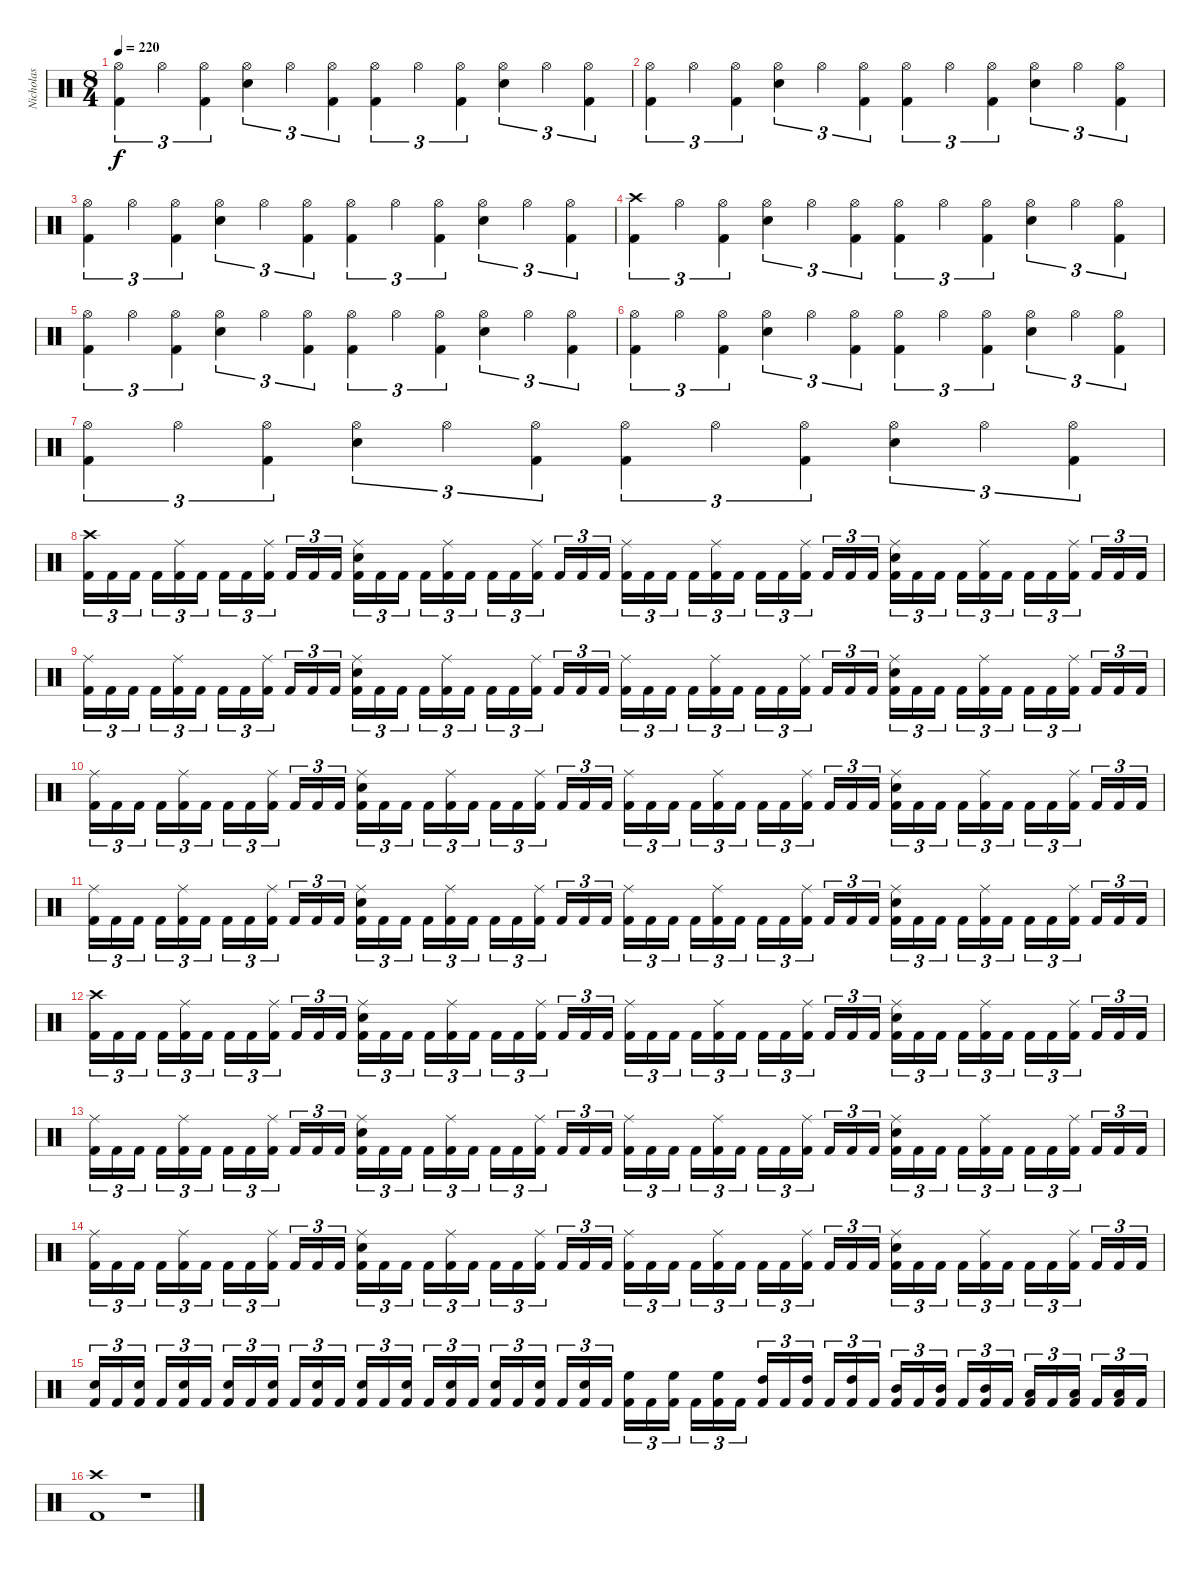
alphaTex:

\track ("Nicholas" "Nicholas") {instrument percussion}
\staff {score}
\articulation defaults
\ts (8 4)
\tempo 220
\clef neutral
\ks c
("Kick (hit) 2" "Hi-Hat (open)").4{tu (3 2) dy f} "Hi-Hat (open)".4{tu (3 2)} ("Kick (hit) 2" "Hi-Hat (open)").4{tu (3 2)} ("Snare (hit) 2" "Hi-Hat (open)").4{tu (3 2)} "Hi-Hat (open)".4{tu (3 2)} ("Kick (hit) 2" "Hi-Hat (open)").4{tu (3 2)} ("Kick (hit) 2" "Hi-Hat (open)").4{tu (3 2)} "Hi-Hat (open)".4{tu (3 2)} ("Kick (hit) 2" "Hi-Hat (open)").4{tu (3 2)} ("Snare (hit) 2" "Hi-Hat (open)").4{tu (3 2)} "Hi-Hat (open)".4{tu (3 2)} ("Kick (hit) 2" "Hi-Hat (open)").4{tu (3 2)} |
("Kick (hit) 2" "Hi-Hat (open)").4{tu (3 2)} "Hi-Hat (open)".4{tu (3 2)} ("Kick (hit) 2" "Hi-Hat (open)").4{tu (3 2)} ("Snare (hit) 2" "Hi-Hat (open)").4{tu (3 2)} "Hi-Hat (open)".4{tu (3 2)} ("Kick (hit) 2" "Hi-Hat (open)").4{tu (3 2)} ("Kick (hit) 2" "Hi-Hat (open)").4{tu (3 2)} "Hi-Hat (open)".4{tu (3 2)} ("Kick (hit) 2" "Hi-Hat (open)").4{tu (3 2)} ("Snare (hit) 2" "Hi-Hat (open)").4{tu (3 2)} "Hi-Hat (open)".4{tu (3 2)} ("Kick (hit) 2" "Hi-Hat (open)").4{tu (3 2)} |
("Kick (hit) 2" "Hi-Hat (open)").4{tu (3 2)} "Hi-Hat (open)".4{tu (3 2)} ("Kick (hit) 2" "Hi-Hat (open)").4{tu (3 2)} ("Snare (hit) 2" "Hi-Hat (open)").4{tu (3 2)} "Hi-Hat (open)".4{tu (3 2)} ("Kick (hit) 2" "Hi-Hat (open)").4{tu (3 2)} ("Kick (hit) 2" "Hi-Hat (open)").4{tu (3 2)} "Hi-Hat (open)".4{tu (3 2)} ("Kick (hit) 2" "Hi-Hat (open)").4{tu (3 2)} ("Snare (hit) 2" "Hi-Hat (open)").4{tu (3 2)} "Hi-Hat (open)".4{tu (3 2)} ("Kick (hit) 2" "Hi-Hat (open)").4{tu (3 2)} |
("Kick (hit) 2" "Crash high (hit)").4{tu (3 2)} "Hi-Hat (open)".4{tu (3 2)} ("Kick (hit) 2" "Hi-Hat (open)").4{tu (3 2)} ("Snare (hit) 2" "Hi-Hat (open)").4{tu (3 2)} "Hi-Hat (open)".4{tu (3 2)} ("Kick (hit) 2" "Hi-Hat (open)").4{tu (3 2)} ("Kick (hit) 2" "Hi-Hat (open)").4{tu (3 2)} "Hi-Hat (open)".4{tu (3 2)} ("Kick (hit) 2" "Hi-Hat (open)").4{tu (3 2)} ("Snare (hit) 2" "Hi-Hat (open)").4{tu (3 2)} "Hi-Hat (open)".4{tu (3 2)} ("Kick (hit) 2" "Hi-Hat (open)").4{tu (3 2)} |
("Kick (hit) 2" "Hi-Hat (open)").4{tu (3 2)} "Hi-Hat (open)".4{tu (3 2)} ("Kick (hit) 2" "Hi-Hat (open)").4{tu (3 2)} ("Snare (hit) 2" "Hi-Hat (open)").4{tu (3 2)} "Hi-Hat (open)".4{tu (3 2)} ("Kick (hit) 2" "Hi-Hat (open)").4{tu (3 2)} ("Kick (hit) 2" "Hi-Hat (open)").4{tu (3 2)} "Hi-Hat (open)".4{tu (3 2)} ("Kick (hit) 2" "Hi-Hat (open)").4{tu (3 2)} ("Snare (hit) 2" "Hi-Hat (open)").4{tu (3 2)} "Hi-Hat (open)".4{tu (3 2)} ("Kick (hit) 2" "Hi-Hat (open)").4{tu (3 2)} |
("Kick (hit) 2" "Hi-Hat (open)").4{tu (3 2)} "Hi-Hat (open)".4{tu (3 2)} ("Kick (hit) 2" "Hi-Hat (open)").4{tu (3 2)} ("Snare (hit) 2" "Hi-Hat (open)").4{tu (3 2)} "Hi-Hat (open)".4{tu (3 2)} ("Kick (hit) 2" "Hi-Hat (open)").4{tu (3 2)} ("Kick (hit) 2" "Hi-Hat (open)").4{tu (3 2)} "Hi-Hat (open)".4{tu (3 2)} ("Kick (hit) 2" "Hi-Hat (open)").4{tu (3 2)} ("Snare (hit) 2" "Hi-Hat (open)").4{tu (3 2)} "Hi-Hat (open)".4{tu (3 2)} ("Kick (hit) 2" "Hi-Hat (open)").4{tu (3 2)} |
("Kick (hit) 2" "Hi-Hat (open)").4{tu (3 2)} "Hi-Hat (open)".4{tu (3 2)} ("Kick (hit) 2" "Hi-Hat (open)").4{tu (3 2)} ("Snare (hit) 2" "Hi-Hat (open)").4{tu (3 2)} "Hi-Hat (open)".4{tu (3 2)} ("Kick (hit) 2" "Hi-Hat (open)").4{tu (3 2)} ("Kick (hit) 2" "Hi-Hat (open)").4{tu (3 2)} "Hi-Hat (open)".4{tu (3 2)} ("Kick (hit) 2" "Hi-Hat (open)").4{tu (3 2)} ("Snare (hit) 2" "Hi-Hat (open)").4{tu (3 2)} "Hi-Hat (open)".4{tu (3 2)} ("Kick (hit) 2" "Hi-Hat (open)").4{tu (3 2)} |
("Kick (hit) 2" "Crash high (hit)").16{tu (3 2)} "Kick (hit) 2".16{tu (3 2)} "Kick (hit) 2".16{tu (3 2)} "Kick (hit) 2".16{tu (3 2)} ("Kick (hit) 2" "Ride (middle)").16{tu (3 2)} "Kick (hit) 2".16{tu (3 2)} "Kick (hit) 2".16{tu (3 2)} "Kick (hit) 2".16{tu (3 2)} ("Kick (hit) 2" "Ride (middle)").16{tu (3 2)} "Kick (hit) 2".16{tu (3 2)} "Kick (hit) 2".16{tu (3 2)} "Kick (hit) 2".16{tu (3 2)} ("Kick (hit) 2" "Snare (hit) 2" "Ride (middle)").16{tu (3 2)} "Kick (hit) 2".16{tu (3 2)} "Kick (hit) 2".16{tu (3 2)} "Kick (hit) 2".16{tu (3 2)} ("Kick (hit) 2" "Ride (middle)").16{tu (3 2)} "Kick (hit) 2".16{tu (3 2)} "Kick (hit) 2".16{tu (3 2)} "Kick (hit) 2".16{tu (3 2)} ("Kick (hit) 2" "Ride (middle)").16{tu (3 2)} "Kick (hit) 2".16{tu (3 2)} "Kick (hit) 2".16{tu (3 2)} "Kick (hit) 2".16{tu (3 2)} ("Kick (hit) 2" "Ride (middle)").16{tu (3 2)} "Kick (hit) 2".16{tu (3 2)} "Kick (hit) 2".16{tu (3 2)} "Kick (hit) 2".16{tu (3 2)} ("Kick (hit) 2" "Ride (middle)").16{tu (3 2)} "Kick (hit) 2".16{tu (3 2)} "Kick (hit) 2".16{tu (3 2)} "Kick (hit) 2".16{tu (3 2)} ("Kick (hit) 2" "Ride (middle)").16{tu (3 2)} "Kick (hit) 2".16{tu (3 2)} "Kick (hit) 2".16{tu (3 2)} "Kick (hit) 2".16{tu (3 2)} ("Kick (hit) 2" "Snare (hit) 2" "Ride (middle)").16{tu (3 2)} "Kick (hit) 2".16{tu (3 2)} "Kick (hit) 2".16{tu (3 2)} "Kick (hit) 2".16{tu (3 2)} ("Kick (hit) 2" "Ride (middle)").16{tu (3 2)} "Kick (hit) 2".16{tu (3 2)} "Kick (hit) 2".16{tu (3 2)} "Kick (hit) 2".16{tu (3 2)} ("Kick (hit) 2" "Ride (middle)").16{tu (3 2)} "Kick (hit) 2".16{tu (3 2)} "Kick (hit) 2".16{tu (3 2)} "Kick (hit) 2".16{tu (3 2)} |
("Kick (hit) 2" "Ride (middle)").16{tu (3 2)} "Kick (hit) 2".16{tu (3 2)} "Kick (hit) 2".16{tu (3 2)} "Kick (hit) 2".16{tu (3 2)} ("Kick (hit) 2" "Ride (middle)").16{tu (3 2)} "Kick (hit) 2".16{tu (3 2)} "Kick (hit) 2".16{tu (3 2)} "Kick (hit) 2".16{tu (3 2)} ("Kick (hit) 2" "Ride (middle)").16{tu (3 2)} "Kick (hit) 2".16{tu (3 2)} "Kick (hit) 2".16{tu (3 2)} "Kick (hit) 2".16{tu (3 2)} ("Kick (hit) 2" "Snare (hit) 2" "Ride (middle)").16{tu (3 2)} "Kick (hit) 2".16{tu (3 2)} "Kick (hit) 2".16{tu (3 2)} "Kick (hit) 2".16{tu (3 2)} ("Kick (hit) 2" "Ride (middle)").16{tu (3 2)} "Kick (hit) 2".16{tu (3 2)} "Kick (hit) 2".16{tu (3 2)} "Kick (hit) 2".16{tu (3 2)} ("Kick (hit) 2" "Ride (middle)").16{tu (3 2)} "Kick (hit) 2".16{tu (3 2)} "Kick (hit) 2".16{tu (3 2)} "Kick (hit) 2".16{tu (3 2)} ("Kick (hit) 2" "Ride (middle)").16{tu (3 2)} "Kick (hit) 2".16{tu (3 2)} "Kick (hit) 2".16{tu (3 2)} "Kick (hit) 2".16{tu (3 2)} ("Kick (hit) 2" "Ride (middle)").16{tu (3 2)} "Kick (hit) 2".16{tu (3 2)} "Kick (hit) 2".16{tu (3 2)} "Kick (hit) 2".16{tu (3 2)} ("Kick (hit) 2" "Ride (middle)").16{tu (3 2)} "Kick (hit) 2".16{tu (3 2)} "Kick (hit) 2".16{tu (3 2)} "Kick (hit) 2".16{tu (3 2)} ("Kick (hit) 2" "Snare (hit) 2" "Ride (middle)").16{tu (3 2)} "Kick (hit) 2".16{tu (3 2)} "Kick (hit) 2".16{tu (3 2)} "Kick (hit) 2".16{tu (3 2)} ("Kick (hit) 2" "Ride (middle)").16{tu (3 2)} "Kick (hit) 2".16{tu (3 2)} "Kick (hit) 2".16{tu (3 2)} "Kick (hit) 2".16{tu (3 2)} ("Kick (hit) 2" "Ride (middle)").16{tu (3 2)} "Kick (hit) 2".16{tu (3 2)} "Kick (hit) 2".16{tu (3 2)} "Kick (hit) 2".16{tu (3 2)} |
("Kick (hit) 2" "Ride (middle)").16{tu (3 2)} "Kick (hit) 2".16{tu (3 2)} "Kick (hit) 2".16{tu (3 2)} "Kick (hit) 2".16{tu (3 2)} ("Kick (hit) 2" "Ride (middle)").16{tu (3 2)} "Kick (hit) 2".16{tu (3 2)} "Kick (hit) 2".16{tu (3 2)} "Kick (hit) 2".16{tu (3 2)} ("Kick (hit) 2" "Ride (middle)").16{tu (3 2)} "Kick (hit) 2".16{tu (3 2)} "Kick (hit) 2".16{tu (3 2)} "Kick (hit) 2".16{tu (3 2)} ("Kick (hit) 2" "Snare (hit) 2" "Ride (middle)").16{tu (3 2)} "Kick (hit) 2".16{tu (3 2)} "Kick (hit) 2".16{tu (3 2)} "Kick (hit) 2".16{tu (3 2)} ("Kick (hit) 2" "Ride (middle)").16{tu (3 2)} "Kick (hit) 2".16{tu (3 2)} "Kick (hit) 2".16{tu (3 2)} "Kick (hit) 2".16{tu (3 2)} ("Kick (hit) 2" "Ride (middle)").16{tu (3 2)} "Kick (hit) 2".16{tu (3 2)} "Kick (hit) 2".16{tu (3 2)} "Kick (hit) 2".16{tu (3 2)} ("Kick (hit) 2" "Ride (middle)").16{tu (3 2)} "Kick (hit) 2".16{tu (3 2)} "Kick (hit) 2".16{tu (3 2)} "Kick (hit) 2".16{tu (3 2)} ("Kick (hit) 2" "Ride (middle)").16{tu (3 2)} "Kick (hit) 2".16{tu (3 2)} "Kick (hit) 2".16{tu (3 2)} "Kick (hit) 2".16{tu (3 2)} ("Kick (hit) 2" "Ride (middle)").16{tu (3 2)} "Kick (hit) 2".16{tu (3 2)} "Kick (hit) 2".16{tu (3 2)} "Kick (hit) 2".16{tu (3 2)} ("Kick (hit) 2" "Snare (hit) 2" "Ride (middle)").16{tu (3 2)} "Kick (hit) 2".16{tu (3 2)} "Kick (hit) 2".16{tu (3 2)} "Kick (hit) 2".16{tu (3 2)} ("Kick (hit) 2" "Ride (middle)").16{tu (3 2)} "Kick (hit) 2".16{tu (3 2)} "Kick (hit) 2".16{tu (3 2)} "Kick (hit) 2".16{tu (3 2)} ("Kick (hit) 2" "Ride (middle)").16{tu (3 2)} "Kick (hit) 2".16{tu (3 2)} "Kick (hit) 2".16{tu (3 2)} "Kick (hit) 2".16{tu (3 2)} |
("Kick (hit) 2" "Ride (middle)").16{tu (3 2)} "Kick (hit) 2".16{tu (3 2)} "Kick (hit) 2".16{tu (3 2)} "Kick (hit) 2".16{tu (3 2)} ("Kick (hit) 2" "Ride (middle)").16{tu (3 2)} "Kick (hit) 2".16{tu (3 2)} "Kick (hit) 2".16{tu (3 2)} "Kick (hit) 2".16{tu (3 2)} ("Kick (hit) 2" "Ride (middle)").16{tu (3 2)} "Kick (hit) 2".16{tu (3 2)} "Kick (hit) 2".16{tu (3 2)} "Kick (hit) 2".16{tu (3 2)} ("Kick (hit) 2" "Snare (hit) 2" "Ride (middle)").16{tu (3 2)} "Kick (hit) 2".16{tu (3 2)} "Kick (hit) 2".16{tu (3 2)} "Kick (hit) 2".16{tu (3 2)} ("Kick (hit) 2" "Ride (middle)").16{tu (3 2)} "Kick (hit) 2".16{tu (3 2)} "Kick (hit) 2".16{tu (3 2)} "Kick (hit) 2".16{tu (3 2)} ("Kick (hit) 2" "Ride (middle)").16{tu (3 2)} "Kick (hit) 2".16{tu (3 2)} "Kick (hit) 2".16{tu (3 2)} "Kick (hit) 2".16{tu (3 2)} ("Kick (hit) 2" "Ride (middle)").16{tu (3 2)} "Kick (hit) 2".16{tu (3 2)} "Kick (hit) 2".16{tu (3 2)} "Kick (hit) 2".16{tu (3 2)} ("Kick (hit) 2" "Ride (middle)").16{tu (3 2)} "Kick (hit) 2".16{tu (3 2)} "Kick (hit) 2".16{tu (3 2)} "Kick (hit) 2".16{tu (3 2)} ("Kick (hit) 2" "Ride (middle)").16{tu (3 2)} "Kick (hit) 2".16{tu (3 2)} "Kick (hit) 2".16{tu (3 2)} "Kick (hit) 2".16{tu (3 2)} ("Kick (hit) 2" "Snare (hit) 2" "Ride (middle)").16{tu (3 2)} "Kick (hit) 2".16{tu (3 2)} "Kick (hit) 2".16{tu (3 2)} "Kick (hit) 2".16{tu (3 2)} ("Kick (hit) 2" "Ride (middle)").16{tu (3 2)} "Kick (hit) 2".16{tu (3 2)} "Kick (hit) 2".16{tu (3 2)} "Kick (hit) 2".16{tu (3 2)} ("Kick (hit) 2" "Ride (middle)").16{tu (3 2)} "Kick (hit) 2".16{tu (3 2)} "Kick (hit) 2".16{tu (3 2)} "Kick (hit) 2".16{tu (3 2)} |
("Kick (hit) 2" "Crash high (hit)").16{tu (3 2)} "Kick (hit) 2".16{tu (3 2)} "Kick (hit) 2".16{tu (3 2)} "Kick (hit) 2".16{tu (3 2)} ("Kick (hit) 2" "Ride (middle)").16{tu (3 2)} "Kick (hit) 2".16{tu (3 2)} "Kick (hit) 2".16{tu (3 2)} "Kick (hit) 2".16{tu (3 2)} ("Kick (hit) 2" "Ride (middle)").16{tu (3 2)} "Kick (hit) 2".16{tu (3 2)} "Kick (hit) 2".16{tu (3 2)} "Kick (hit) 2".16{tu (3 2)} ("Kick (hit) 2" "Snare (hit) 2" "Ride (middle)").16{tu (3 2)} "Kick (hit) 2".16{tu (3 2)} "Kick (hit) 2".16{tu (3 2)} "Kick (hit) 2".16{tu (3 2)} ("Kick (hit) 2" "Ride (middle)").16{tu (3 2)} "Kick (hit) 2".16{tu (3 2)} "Kick (hit) 2".16{tu (3 2)} "Kick (hit) 2".16{tu (3 2)} ("Kick (hit) 2" "Ride (middle)").16{tu (3 2)} "Kick (hit) 2".16{tu (3 2)} "Kick (hit) 2".16{tu (3 2)} "Kick (hit) 2".16{tu (3 2)} ("Kick (hit) 2" "Ride (middle)").16{tu (3 2)} "Kick (hit) 2".16{tu (3 2)} "Kick (hit) 2".16{tu (3 2)} "Kick (hit) 2".16{tu (3 2)} ("Kick (hit) 2" "Ride (middle)").16{tu (3 2)} "Kick (hit) 2".16{tu (3 2)} "Kick (hit) 2".16{tu (3 2)} "Kick (hit) 2".16{tu (3 2)} ("Kick (hit) 2" "Ride (middle)").16{tu (3 2)} "Kick (hit) 2".16{tu (3 2)} "Kick (hit) 2".16{tu (3 2)} "Kick (hit) 2".16{tu (3 2)} ("Kick (hit) 2" "Snare (hit) 2" "Ride (middle)").16{tu (3 2)} "Kick (hit) 2".16{tu (3 2)} "Kick (hit) 2".16{tu (3 2)} "Kick (hit) 2".16{tu (3 2)} ("Kick (hit) 2" "Ride (middle)").16{tu (3 2)} "Kick (hit) 2".16{tu (3 2)} "Kick (hit) 2".16{tu (3 2)} "Kick (hit) 2".16{tu (3 2)} ("Kick (hit) 2" "Ride (middle)").16{tu (3 2)} "Kick (hit) 2".16{tu (3 2)} "Kick (hit) 2".16{tu (3 2)} "Kick (hit) 2".16{tu (3 2)} |
("Kick (hit) 2" "Ride (middle)").16{tu (3 2)} "Kick (hit) 2".16{tu (3 2)} "Kick (hit) 2".16{tu (3 2)} "Kick (hit) 2".16{tu (3 2)} ("Kick (hit) 2" "Ride (middle)").16{tu (3 2)} "Kick (hit) 2".16{tu (3 2)} "Kick (hit) 2".16{tu (3 2)} "Kick (hit) 2".16{tu (3 2)} ("Kick (hit) 2" "Ride (middle)").16{tu (3 2)} "Kick (hit) 2".16{tu (3 2)} "Kick (hit) 2".16{tu (3 2)} "Kick (hit) 2".16{tu (3 2)} ("Kick (hit) 2" "Snare (hit) 2" "Ride (middle)").16{tu (3 2)} "Kick (hit) 2".16{tu (3 2)} "Kick (hit) 2".16{tu (3 2)} "Kick (hit) 2".16{tu (3 2)} ("Kick (hit) 2" "Ride (middle)").16{tu (3 2)} "Kick (hit) 2".16{tu (3 2)} "Kick (hit) 2".16{tu (3 2)} "Kick (hit) 2".16{tu (3 2)} ("Kick (hit) 2" "Ride (middle)").16{tu (3 2)} "Kick (hit) 2".16{tu (3 2)} "Kick (hit) 2".16{tu (3 2)} "Kick (hit) 2".16{tu (3 2)} ("Kick (hit) 2" "Ride (middle)").16{tu (3 2)} "Kick (hit) 2".16{tu (3 2)} "Kick (hit) 2".16{tu (3 2)} "Kick (hit) 2".16{tu (3 2)} ("Kick (hit) 2" "Ride (middle)").16{tu (3 2)} "Kick (hit) 2".16{tu (3 2)} "Kick (hit) 2".16{tu (3 2)} "Kick (hit) 2".16{tu (3 2)} ("Kick (hit) 2" "Ride (middle)").16{tu (3 2)} "Kick (hit) 2".16{tu (3 2)} "Kick (hit) 2".16{tu (3 2)} "Kick (hit) 2".16{tu (3 2)} ("Kick (hit) 2" "Snare (hit) 2" "Ride (middle)").16{tu (3 2)} "Kick (hit) 2".16{tu (3 2)} "Kick (hit) 2".16{tu (3 2)} "Kick (hit) 2".16{tu (3 2)} ("Kick (hit) 2" "Ride (middle)").16{tu (3 2)} "Kick (hit) 2".16{tu (3 2)} "Kick (hit) 2".16{tu (3 2)} "Kick (hit) 2".16{tu (3 2)} ("Kick (hit) 2" "Ride (middle)").16{tu (3 2)} "Kick (hit) 2".16{tu (3 2)} "Kick (hit) 2".16{tu (3 2)} "Kick (hit) 2".16{tu (3 2)} |
("Kick (hit) 2" "Ride (middle)").16{tu (3 2)} "Kick (hit) 2".16{tu (3 2)} "Kick (hit) 2".16{tu (3 2)} "Kick (hit) 2".16{tu (3 2)} ("Kick (hit) 2" "Ride (middle)").16{tu (3 2)} "Kick (hit) 2".16{tu (3 2)} "Kick (hit) 2".16{tu (3 2)} "Kick (hit) 2".16{tu (3 2)} ("Kick (hit) 2" "Ride (middle)").16{tu (3 2)} "Kick (hit) 2".16{tu (3 2)} "Kick (hit) 2".16{tu (3 2)} "Kick (hit) 2".16{tu (3 2)} ("Kick (hit) 2" "Snare (hit) 2" "Ride (middle)").16{tu (3 2)} "Kick (hit) 2".16{tu (3 2)} "Kick (hit) 2".16{tu (3 2)} "Kick (hit) 2".16{tu (3 2)} ("Kick (hit) 2" "Ride (middle)").16{tu (3 2)} "Kick (hit) 2".16{tu (3 2)} "Kick (hit) 2".16{tu (3 2)} "Kick (hit) 2".16{tu (3 2)} ("Kick (hit) 2" "Ride (middle)").16{tu (3 2)} "Kick (hit) 2".16{tu (3 2)} "Kick (hit) 2".16{tu (3 2)} "Kick (hit) 2".16{tu (3 2)} ("Kick (hit) 2" "Ride (middle)").16{tu (3 2)} "Kick (hit) 2".16{tu (3 2)} "Kick (hit) 2".16{tu (3 2)} "Kick (hit) 2".16{tu (3 2)} ("Kick (hit) 2" "Ride (middle)").16{tu (3 2)} "Kick (hit) 2".16{tu (3 2)} "Kick (hit) 2".16{tu (3 2)} "Kick (hit) 2".16{tu (3 2)} ("Kick (hit) 2" "Ride (middle)").16{tu (3 2)} "Kick (hit) 2".16{tu (3 2)} "Kick (hit) 2".16{tu (3 2)} "Kick (hit) 2".16{tu (3 2)} ("Kick (hit) 2" "Snare (hit) 2" "Ride (middle)").16{tu (3 2)} "Kick (hit) 2".16{tu (3 2)} "Kick (hit) 2".16{tu (3 2)} "Kick (hit) 2".16{tu (3 2)} ("Kick (hit) 2" "Ride (middle)").16{tu (3 2)} "Kick (hit) 2".16{tu (3 2)} "Kick (hit) 2".16{tu (3 2)} "Kick (hit) 2".16{tu (3 2)} ("Kick (hit) 2" "Ride (middle)").16{tu (3 2)} "Kick (hit) 2".16{tu (3 2)} "Kick (hit) 2".16{tu (3 2)} "Kick (hit) 2".16{tu (3 2)} |
("Kick (hit) 2" "Snare (hit) 2").16{tu (3 2)} "Kick (hit) 2".16{tu (3 2)} ("Kick (hit) 2" "Snare (hit) 2").16{tu (3 2)} "Kick (hit) 2".16{tu (3 2)} ("Kick (hit) 2" "Snare (hit) 2").16{tu (3 2)} "Kick (hit) 2".16{tu (3 2)} ("Kick (hit) 2" "Snare (hit) 2").16{tu (3 2)} "Kick (hit) 2".16{tu (3 2)} ("Kick (hit) 2" "Snare (hit) 2").16{tu (3 2)} "Kick (hit) 2".16{tu (3 2)} ("Kick (hit) 2" "Snare (hit) 2").16{tu (3 2)} "Kick (hit) 2".16{tu (3 2)} ("Kick (hit) 2" "Snare (hit) 2").16{tu (3 2)} "Kick (hit) 2".16{tu (3 2)} ("Kick (hit) 2" "Snare (hit) 2").16{tu (3 2)} "Kick (hit) 2".16{tu (3 2)} ("Kick (hit) 2" "Snare (hit) 2").16{tu (3 2)} "Kick (hit) 2".16{tu (3 2)} ("Kick (hit) 2" "Snare (hit) 2").16{tu (3 2)} "Kick (hit) 2".16{tu (3 2)} ("Kick (hit) 2" "Snare (hit) 2").16{tu (3 2)} "Kick (hit) 2".16{tu (3 2)} ("Kick (hit) 2" "Snare (hit) 2").16{tu (3 2)} "Kick (hit) 2".16{tu (3 2)} ("Kick (hit) 2" "High Floor Tom (hit)").16{tu (3 2)} "Kick (hit) 2".16{tu (3 2)} ("Kick (hit) 2" "High Floor Tom (hit)").16{tu (3 2)} "Kick (hit) 2".16{tu (3 2)} ("Kick (hit) 2" "High Floor Tom (hit)").16{tu (3 2)} "Kick (hit) 2".16{tu (3 2)} ("Kick (hit) 2" "High Tom (hit)").16{tu (3 2)} "Kick (hit) 2".16{tu (3 2)} ("Kick (hit) 2" "High Tom (hit)").16{tu (3 2)} "Kick (hit) 2".16{tu (3 2)} ("Kick (hit) 2" "High Tom (hit)").16{tu (3 2)} "Kick (hit) 2".16{tu (3 2)} ("Kick (hit) 2" "Mid Tom (hit)").16{tu (3 2)} "Kick (hit) 2".16{tu (3 2)} ("Kick (hit) 2" "Mid Tom (hit)").16{tu (3 2)} "Kick (hit) 2".16{tu (3 2)} ("Kick (hit) 2" "Mid Tom (hit)").16{tu (3 2)} "Kick (hit) 2".16{tu (3 2)} ("Kick (hit) 2" "Low Tom (hit)").16{tu (3 2)} "Kick (hit) 2".16{tu (3 2)} ("Kick (hit) 2" "Low Tom (hit)").16{tu (3 2)} "Kick (hit) 2".16{tu (3 2)} ("Kick (hit) 2" "Low Tom (hit)").16{tu (3 2)} "Kick (hit) 2".16{tu (3 2)} |
("Kick (hit) 2" "Crash high (hit)").1 r.1
